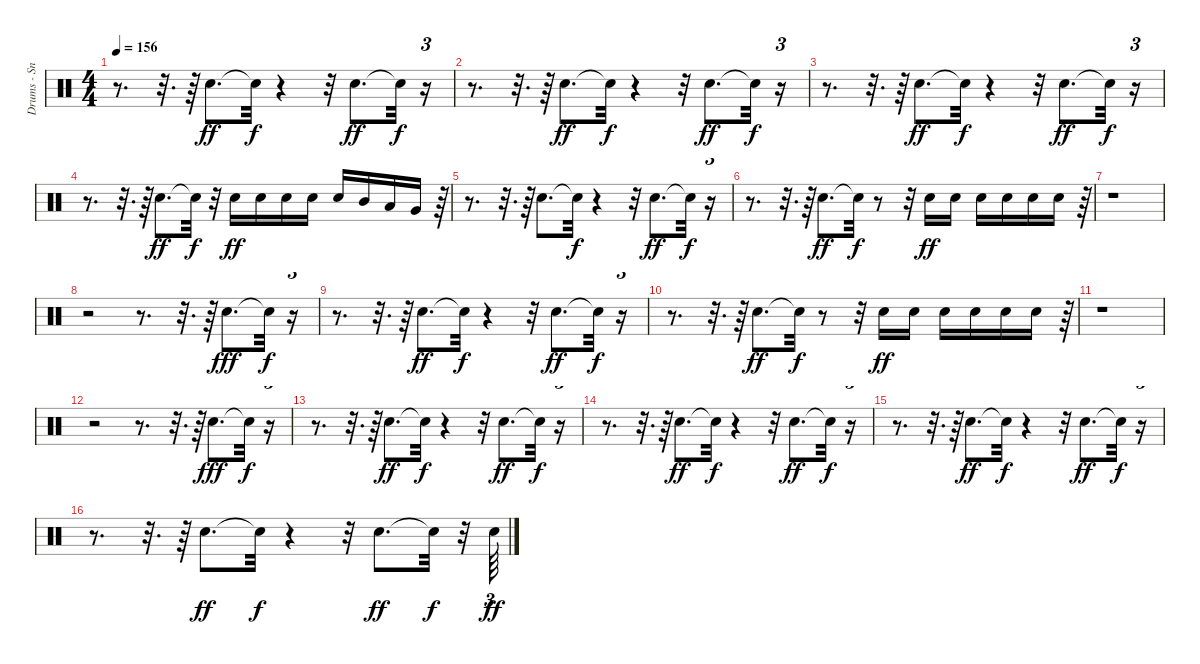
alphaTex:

\track ("Drums - Snare/Toms" "Drums - Sn") {instrument percussion}
\staff {score}
\articulation defaults
\ts (4 4)
\tempo 156
\clef neutral
\ks c
r.8{d dy f} r.32{d} r.64 "Electric Snare (hit)".8{d dy ff} "Snare (hit)"{t}.32{dy f} r.4 r.32 "Electric Snare (hit)".8{d dy ff} "Snare (hit)"{t}.32{dy f} r.16{tu (3 2)} |
r.8{d} r.32{d} r.64 "Electric Snare (hit)".8{d dy ff} "Snare (hit)"{t}.32{dy f} r.4 r.32 "Electric Snare (hit)".8{d dy ff} "Snare (hit)"{t}.32{dy f} r.16{tu (3 2)} |
r.8{d} r.32{d} r.64 "Electric Snare (hit)".8{d dy ff} "Snare (hit)"{t}.32{dy f} r.4 r.32 "Electric Snare (hit)".8{d dy ff} "Snare (hit)"{t}.32{dy f} r.16{tu (3 2)} |
r.8{d} r.32{d} r.64 "Electric Snare (hit)".8{d dy ff} "Snare (hit)"{t}.32{dy f} r.32 "Electric Snare (hit)".16{dy ff} "Electric Snare (hit)".16 "Electric Snare (hit)".16 "Electric Snare (hit)".16 "Electric Snare (hit)".16 "Mid Tom (hit)".16 "Low Tom (hit)".16 "Very Low Tom (hit)".16 r.64{tu (3 2)} |
r.8{d} r.32{d} r.64 "Electric Snare (hit)".8{d} "Snare (hit)"{t}.32{dy f} r.4 r.32 "Electric Snare (hit)".8{d dy ff} "Snare (hit)"{t}.32{dy f} r.16{tu (3 2)} |
r.8{d} r.32{d} r.64 "Electric Snare (hit)".8{d dy ff} "Snare (hit)"{t}.32{dy f} r.8 r.32 "Electric Snare (hit)".16{dy ff} "Electric Snare (hit)".16 "Electric Snare (hit)".16 "Electric Snare (hit)".16 "Electric Snare (hit)".16 "Electric Snare (hit)".16 r.64{tu (3 2)} |
r.1 |
r.2 r.8{d} r.32{d} r.64 "Electric Snare (hit)".8{d dy fff} "Snare (hit)"{t}.32{dy f} r.16{tu (3 2)} |
r.8{d} r.32{d} r.64 "Electric Snare (hit)".8{d dy ff} "Snare (hit)"{t}.32{dy f} r.4 r.32 "Electric Snare (hit)".8{d dy ff} "Snare (hit)"{t}.32{dy f} r.16{tu (3 2)} |
r.8{d} r.32{d} r.64 "Electric Snare (hit)".8{d dy ff} "Snare (hit)"{t}.32{dy f} r.8 r.32 "Electric Snare (hit)".16{dy ff} "Electric Snare (hit)".16 "Electric Snare (hit)".16 "Electric Snare (hit)".16 "Electric Snare (hit)".16 "Electric Snare (hit)".16 r.64{tu (3 2)} |
r.1 |
r.2 r.8{d} r.32{d} r.64 "Electric Snare (hit)".8{d dy fff} "Snare (hit)"{t}.32{dy f} r.16{tu (3 2)} |
r.8{d} r.32{d} r.64 "Electric Snare (hit)".8{d dy ff} "Snare (hit)"{t}.32{dy f} r.4 r.32 "Electric Snare (hit)".8{d dy ff} "Snare (hit)"{t}.32{dy f} r.16{tu (3 2)} |
r.8{d} r.32{d} r.64 "Electric Snare (hit)".8{d dy ff} "Snare (hit)"{t}.32{dy f} r.4 r.32 "Electric Snare (hit)".8{d dy ff} "Snare (hit)"{t}.32{dy f} r.16{tu (3 2)} |
r.8{d} r.32{d} r.64 "Electric Snare (hit)".8{d dy ff} "Snare (hit)"{t}.32{dy f} r.4 r.32 "Electric Snare (hit)".8{d dy ff} "Snare (hit)"{t}.32{dy f} r.16{tu (3 2)} |
r.8{d} r.32{d} r.64 "Electric Snare (hit)".8{d dy ff} "Snare (hit)"{t}.32{dy f} r.4 r.32 "Electric Snare (hit)".8{d dy ff} "Snare (hit)"{t}.32{dy f} r.32 "Electric Snare (hit)".64{tu (3 2) dy ff}
